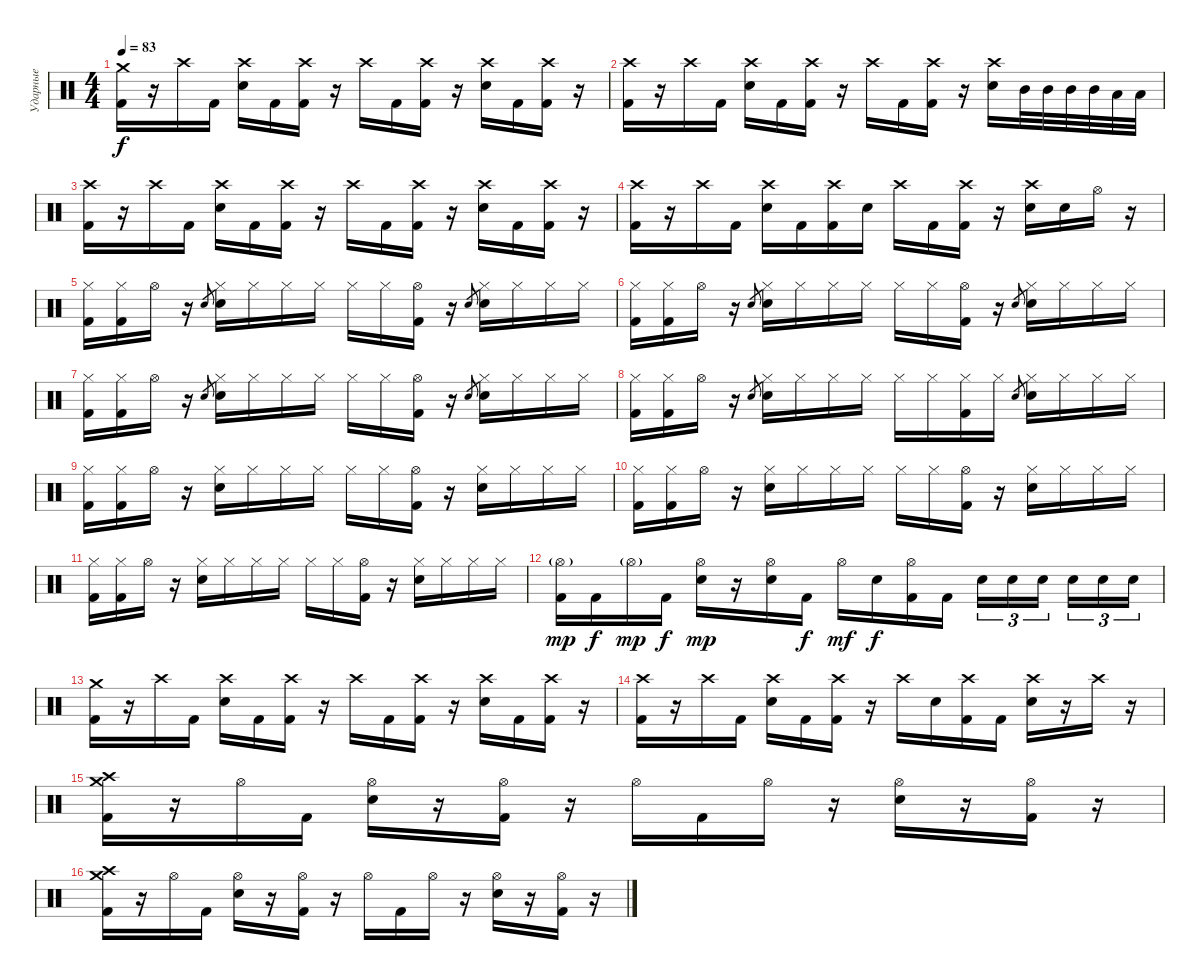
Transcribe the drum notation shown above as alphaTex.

\track ("Ударные" "Ударные") {instrument percussion}
\staff {score}
\articulation defaults
\ts (4 4)
\tempo 83
\clef neutral
\ks c
("Crash medium (hit)" "Kick (hit) 2").16{dy f} r.16 "Crash high (hit)".16 "Kick (hit) 2".16 ("Crash high (hit)" "Electric Snare (hit)").16 "Kick (hit) 2".16 ("Crash high (hit)" "Kick (hit) 2").16 r.16 "Crash high (hit)".16 "Kick (hit) 2".16 ("Crash high (hit)" "Kick (hit) 2").16 r.16 ("Crash high (hit)" "Electric Snare (hit)").16 "Kick (hit) 2".16 ("Crash high (hit)" "Kick (hit) 2").16 r.16 |
("Crash high (hit)" "Kick (hit) 2").16 r.16 "Crash high (hit)".16 "Kick (hit) 2".16 ("Crash high (hit)" "Electric Snare (hit)").16 "Kick (hit) 2".16 ("Crash high (hit)" "Kick (hit) 2").16 r.16 "Crash high (hit)".16 "Kick (hit) 2".16 ("Crash high (hit)" "Kick (hit) 2").16 r.16 ("Crash high (hit)" "Electric Snare (hit)").16 "Mid Tom (hit)".32 "Mid Tom (hit)".32 "Mid Tom (hit)".32 "Mid Tom (hit)".32 "Low Tom (hit)".32 "Low Tom (hit)".32 |
("Crash high (hit)" "Kick (hit) 2").16 r.16 "Crash high (hit)".16 "Kick (hit) 2".16 ("Crash high (hit)" "Electric Snare (hit)").16 "Kick (hit) 2".16 ("Crash high (hit)" "Kick (hit) 2").16 r.16 "Crash high (hit)".16 "Kick (hit) 2".16 ("Crash high (hit)" "Kick (hit) 2").16 r.16 ("Crash high (hit)" "Electric Snare (hit)").16 "Kick (hit) 2".16 ("Crash high (hit)" "Kick (hit) 2").16 r.16 |
("Crash high (hit)" "Kick (hit) 2").16 r.16 "Crash high (hit)".16 "Kick (hit) 2".16 ("Crash high (hit)" "Electric Snare (hit)").16 "Kick (hit) 2".16 ("Crash high (hit)" "Kick (hit) 2").16 "Electric Snare (hit)".16 "Crash high (hit)".16 "Kick (hit) 2".16 ("Crash high (hit)" "Kick (hit) 2").16 r.16 ("Crash high (hit)" "Electric Snare (hit)").16 "Electric Snare (hit)".16 "Hi-Hat (open)".16 r.16 |
("Hi-Hat (closed)" "Kick (hit) 2").16 ("Hi-Hat (closed)" "Kick (hit) 2").16 "Hi-Hat (open)".16 r.16 "Electric Snare (hit)".8{gr} ("Hi-Hat (closed)" "Electric Snare (hit)").16 "Hi-Hat (closed)".16 "Hi-Hat (closed)".16 "Hi-Hat (closed)".16 "Hi-Hat (closed)".16 "Hi-Hat (closed)".16 ("Hi-Hat (open)" "Kick (hit) 2").16 r.16 "Electric Snare (hit)".8{gr} ("Hi-Hat (closed)" "Electric Snare (hit)").16 "Hi-Hat (closed)".16 "Hi-Hat (closed)".16 "Hi-Hat (closed)".16 |
("Hi-Hat (closed)" "Kick (hit) 2").16 ("Hi-Hat (closed)" "Kick (hit) 2").16 "Hi-Hat (open)".16 r.16 "Electric Snare (hit)".8{gr} ("Hi-Hat (closed)" "Electric Snare (hit)").16 "Hi-Hat (closed)".16 "Hi-Hat (closed)".16 "Hi-Hat (closed)".16 "Hi-Hat (closed)".16 "Hi-Hat (closed)".16 ("Hi-Hat (open)" "Kick (hit) 2").16 r.16 "Electric Snare (hit)".8{gr} ("Hi-Hat (closed)" "Electric Snare (hit)").16 "Hi-Hat (closed)".16 "Hi-Hat (closed)".16 "Hi-Hat (closed)".16 |
("Hi-Hat (closed)" "Kick (hit) 2").16 ("Hi-Hat (closed)" "Kick (hit) 2").16 "Hi-Hat (open)".16 r.16 "Electric Snare (hit)".8{gr} ("Hi-Hat (closed)" "Electric Snare (hit)").16 "Hi-Hat (closed)".16 "Hi-Hat (closed)".16 "Hi-Hat (closed)".16 "Hi-Hat (closed)".16 "Hi-Hat (closed)".16 ("Hi-Hat (open)" "Kick (hit) 2").16 r.16 "Electric Snare (hit)".8{gr} ("Hi-Hat (closed)" "Electric Snare (hit)").16 "Hi-Hat (closed)".16 "Hi-Hat (closed)".16 "Hi-Hat (closed)".16 |
("Hi-Hat (closed)" "Kick (hit) 2").16 ("Hi-Hat (closed)" "Kick (hit) 2").16 "Hi-Hat (open)".16 r.16 "Electric Snare (hit)".8{gr} ("Hi-Hat (closed)" "Electric Snare (hit)").16 "Hi-Hat (closed)".16 "Hi-Hat (closed)".16 "Hi-Hat (closed)".16 "Hi-Hat (closed)".16 "Hi-Hat (closed)".16 ("Hi-Hat (closed)" "Kick (hit) 2").16 "Hi-Hat (closed)".16 "Electric Snare (hit)".8{gr} ("Hi-Hat (closed)" "Electric Snare (hit)").16 "Hi-Hat (closed)".16 "Hi-Hat (closed)".16 "Hi-Hat (closed)".16 |
("Hi-Hat (closed)" "Kick (hit) 2").16 ("Hi-Hat (closed)" "Kick (hit) 2").16 "Hi-Hat (open)".16 r.16 ("Hi-Hat (closed)" "Electric Snare (hit)").16 "Hi-Hat (closed)".16 "Hi-Hat (closed)".16 "Hi-Hat (closed)".16 "Hi-Hat (closed)".16 "Hi-Hat (closed)".16 ("Hi-Hat (open)" "Kick (hit) 2").16 r.16 ("Hi-Hat (closed)" "Electric Snare (hit)").16 "Hi-Hat (closed)".16 "Hi-Hat (closed)".16 "Hi-Hat (closed)".16 |
("Hi-Hat (closed)" "Kick (hit) 2").16 ("Hi-Hat (closed)" "Kick (hit) 2").16 "Hi-Hat (open)".16 r.16 ("Hi-Hat (closed)" "Electric Snare (hit)").16 "Hi-Hat (closed)".16 "Hi-Hat (closed)".16 "Hi-Hat (closed)".16 "Hi-Hat (closed)".16 "Hi-Hat (closed)".16 ("Hi-Hat (open)" "Kick (hit) 2").16 r.16 ("Hi-Hat (closed)" "Electric Snare (hit)").16 "Hi-Hat (closed)".16 "Hi-Hat (closed)".16 "Hi-Hat (closed)".16 |
("Hi-Hat (closed)" "Kick (hit) 2").16 ("Hi-Hat (closed)" "Kick (hit) 2").16 "Hi-Hat (open)".16 r.16 ("Hi-Hat (closed)" "Electric Snare (hit)").16 "Hi-Hat (closed)".16 "Hi-Hat (closed)".16 "Hi-Hat (closed)".16 "Hi-Hat (closed)".16 "Hi-Hat (closed)".16 ("Hi-Hat (open)" "Kick (hit) 2").16 r.16 ("Hi-Hat (closed)" "Electric Snare (hit)").16 "Hi-Hat (closed)".16 "Hi-Hat (closed)".16 "Hi-Hat (closed)".16 |
("Hi-Hat (open)"{g} "Kick (hit) 2").16{dy mp} "Kick (hit) 2".16{dy f} "Hi-Hat (open)"{g}.16{dy mp} "Kick (hit) 2".16{dy f} ("Hi-Hat (open)" "Electric Snare (hit)").16{dy mp} r.16 ("Hi-Hat (open)" "Electric Snare (hit)").16 "Kick (hit) 2".16{dy f} "Hi-Hat (open)".16{dy mf} "Electric Snare (hit)".16{dy f} ("Hi-Hat (open)" "Kick (hit) 2").16 "Kick (hit) 2".16 "Electric Snare (hit)".16{tu (3 2)} "Electric Snare (hit)".16{tu (3 2)} "Electric Snare (hit)".16{tu (3 2) beam splitsecondary} "Electric Snare (hit)".16{tu (3 2)} "Electric Snare (hit)".16{tu (3 2)} "Electric Snare (hit)".16{tu (3 2)} |
("Crash medium (hit)" "Kick (hit) 2").16 r.16 "Crash high (hit)".16 "Kick (hit) 2".16 ("Crash high (hit)" "Electric Snare (hit)").16 "Kick (hit) 2".16 ("Crash high (hit)" "Kick (hit) 2").16 r.16 "Crash high (hit)".16 "Kick (hit) 2".16 ("Crash high (hit)" "Kick (hit) 2").16 r.16 ("Crash high (hit)" "Electric Snare (hit)").16 "Kick (hit) 2".16 ("Crash high (hit)" "Kick (hit) 2").16 r.16 |
("Crash high (hit)" "Kick (hit) 2").16 r.16 "Crash high (hit)".16 "Kick (hit) 2".16 ("Crash high (hit)" "Electric Snare (hit)").16 "Kick (hit) 2".16 ("Crash high (hit)" "Kick (hit) 2").16 r.16 "Crash high (hit)".16 "Electric Snare (hit)".16 ("Crash high (hit)" "Kick (hit) 2").16 "Kick (hit) 2".16 ("Crash high (hit)" "Electric Snare (hit)").16 r.16 "Crash high (hit)".16 r.16 |
("Crash medium (hit)" "Crash high (hit)" "Kick (hit) 2").16 r.16 "Hi-Hat (open)".16 "Kick (hit) 2".16 ("Hi-Hat (open)" "Electric Snare (hit)").16 r.16 ("Hi-Hat (open)" "Kick (hit) 2").16 r.16 "Hi-Hat (open)".16 "Kick (hit) 2".16 "Hi-Hat (open)".16 r.16 ("Hi-Hat (open)" "Electric Snare (hit)").16 r.16 ("Hi-Hat (open)" "Kick (hit) 2").16 r.16 |
("Crash medium (hit)" "Crash high (hit)" "Kick (hit) 2").16 r.16 "Hi-Hat (open)".16 "Kick (hit) 2".16 ("Hi-Hat (open)" "Electric Snare (hit)").16 r.16 ("Hi-Hat (open)" "Kick (hit) 2").16 r.16 "Hi-Hat (open)".16 "Kick (hit) 2".16 "Hi-Hat (open)".16 r.16 ("Hi-Hat (open)" "Electric Snare (hit)").16 r.16 ("Hi-Hat (open)" "Kick (hit) 2").16 r.16
